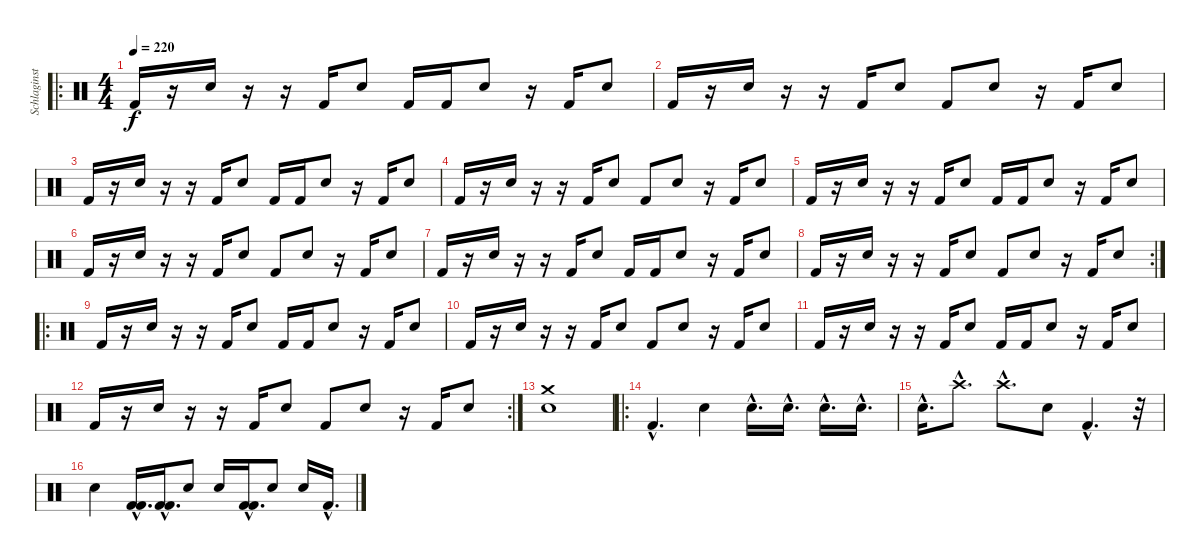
\track ("Schlaginstrumente - Auswahl" "Schlaginst") {instrument percussion}
\staff {score}
\articulation defaults
\ro
\ts (4 4)
\tempo 220
\clef neutral
\ks c "Kick (hit) 2".16{dy f}
r.16 "Snare (hit) 2".16 r.16 r.16 "Kick (hit) 2".16 "Snare (hit) 2".8 "Kick (hit) 2".16 "Kick (hit) 2".16 "Snare (hit) 2".8 r.16 "Kick (hit) 2".16 "Snare (hit) 2".8 |
"Kick (hit) 2".16 r.16 "Snare (hit) 2".16 r.16 r.16 "Kick (hit) 2".16 "Snare (hit) 2".8 "Kick (hit) 2".8 "Snare (hit) 2".8 r.16 "Kick (hit) 2".16 "Snare (hit) 2".8 |
"Kick (hit) 2".16 r.16 "Snare (hit) 2".16 r.16 r.16 "Kick (hit) 2".16 "Snare (hit) 2".8 "Kick (hit) 2".16 "Kick (hit) 2".16 "Snare (hit) 2".8 r.16 "Kick (hit) 2".16 "Snare (hit) 2".8 |
"Kick (hit) 2".16 r.16 "Snare (hit) 2".16 r.16 r.16 "Kick (hit) 2".16 "Snare (hit) 2".8 "Kick (hit) 2".8 "Snare (hit) 2".8 r.16 "Kick (hit) 2".16 "Snare (hit) 2".8 |
"Kick (hit) 2".16 r.16 "Snare (hit) 2".16 r.16 r.16 "Kick (hit) 2".16 "Snare (hit) 2".8 "Kick (hit) 2".16 "Kick (hit) 2".16 "Snare (hit) 2".8 r.16 "Kick (hit) 2".16 "Snare (hit) 2".8 |
"Kick (hit) 2".16 r.16 "Snare (hit) 2".16 r.16 r.16 "Kick (hit) 2".16 "Snare (hit) 2".8 "Kick (hit) 2".8 "Snare (hit) 2".8 r.16 "Kick (hit) 2".16 "Snare (hit) 2".8 |
"Kick (hit) 2".16 r.16 "Snare (hit) 2".16 r.16 r.16 "Kick (hit) 2".16 "Snare (hit) 2".8 "Kick (hit) 2".16 "Kick (hit) 2".16 "Snare (hit) 2".8 r.16 "Kick (hit) 2".16 "Snare (hit) 2".8 |
\rc 2 "Kick (hit) 2".16
r.16 "Snare (hit) 2".16 r.16 r.16 "Kick (hit) 2".16 "Snare (hit) 2".8 "Kick (hit) 2".8 "Snare (hit) 2".8 r.16 "Kick (hit) 2".16 "Snare (hit) 2".8 |
\ro "Kick (hit) 2".16
r.16 "Snare (hit) 2".16 r.16 r.16 "Kick (hit) 2".16 "Snare (hit) 2".8 "Kick (hit) 2".16 "Kick (hit) 2".16 "Snare (hit) 2".8 r.16 "Kick (hit) 2".16 "Snare (hit) 2".8 |
"Kick (hit) 2".16 r.16 "Snare (hit) 2".16 r.16 r.16 "Kick (hit) 2".16 "Snare (hit) 2".8 "Kick (hit) 2".8 "Snare (hit) 2".8 r.16 "Kick (hit) 2".16 "Snare (hit) 2".8 |
"Kick (hit) 2".16 r.16 "Snare (hit) 2".16 r.16 r.16 "Kick (hit) 2".16 "Snare (hit) 2".8 "Kick (hit) 2".16 "Kick (hit) 2".16 "Snare (hit) 2".8 r.16 "Kick (hit) 2".16 "Snare (hit) 2".8 |
\rc 2 "Kick (hit) 2".16
r.16 "Snare (hit) 2".16 r.16 r.16 "Kick (hit) 2".16 "Snare (hit) 2".8 "Kick (hit) 2".8 "Snare (hit) 2".8 r.16 "Kick (hit) 2".16 "Snare (hit) 2".8 |
("Snare (hit) 2" "Crash medium (hit)").1 |
\ro "Kick (hit) 2"{hac}.4{d} "Snare (hit) 2".4 "Snare (hit) 2"{hac}.16{d} "Snare (hit) 2"{hac}.16{d} "Snare (hit) 2"{hac}.16{d} "Snare (hit) 2"{hac}.16{d}
|
"Snare (hit) 2"{hac}.16{d} "Crash high (hit)"{hac}.8{d} "Crash high (hit)"{hac}.8{d} "Snare (hit) 2".8 "Kick (hit) 2"{hac}.4{d} r.32 |
"Snare (hit) 2".4 ("Kick (hit) 2"{hac} "Kick (hit) 2"{hac}).16{d} ("Kick (hit) 2"{hac} "Kick (hit) 2"{hac}).16{d} "Snare (hit) 2".8 "Snare (hit) 2".16 ("Kick (hit) 2"{hac} "Kick (hit) 2"{hac}).16{d} "Snare (hit) 2".8 "Snare (hit) 2".16 "Kick (hit) 2"{hac}.16{d}
